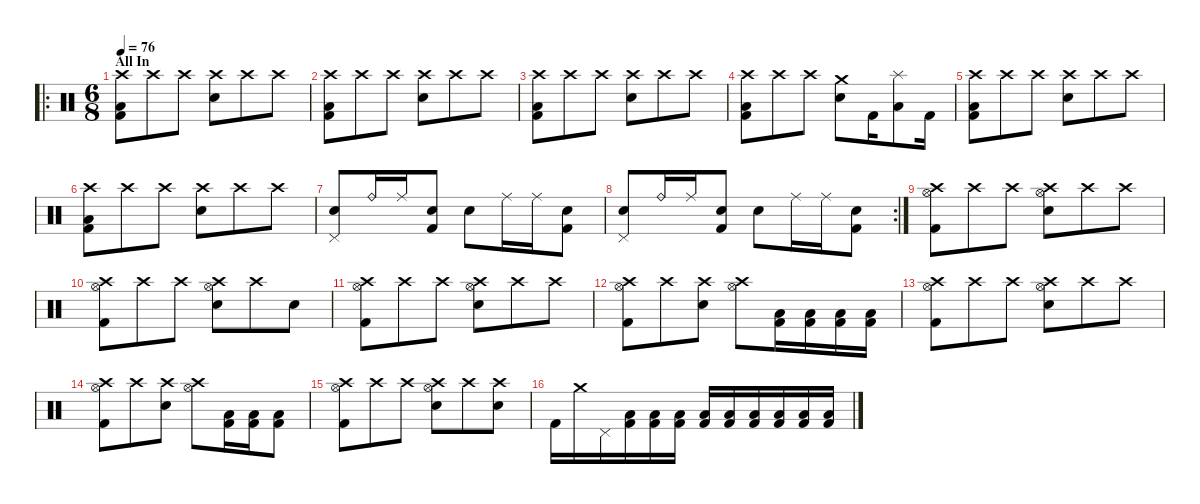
\defaultSystemsLayout 4
\hideDynamics
\bracketExtendMode nobrackets
\singleTrackTrackNamePolicy hidden
\multiTrackTrackNamePolicy hidden
\firstSystemTrackNameMode fullname
\firstSystemTrackNameOrientation horizontal
\otherSystemsTrackNameOrientation horizontal
\track ("Drums" "drm.") {instrument percussion}
\staff {score}
\articulation defaults
\ro
\ts (6 8)
\section ("" "All In")
\tempo 76
\clef neutral
\ks c
("Crash high (hit)" "Low Floor Tom (hit)" "Kick (hit) 2").8{dy f beam Down} "Crash high (hit)".8{beam Down} "Crash high (hit)".8{beam Down} ("Crash high (hit)" "Snare (hit) 2").8{beam Down} "Crash high (hit)".8{beam Down} "Crash high (hit)".8{beam Down} |
("Crash high (hit)" "Low Floor Tom (hit)" "Kick (hit) 2").8{beam Down} "Crash high (hit)".8{beam Down} "Crash high (hit)".8{beam Down} ("Crash high (hit)" "Snare (hit) 2").8{beam Down} "Crash high (hit)".8{beam Down} "Crash high (hit)".8{beam Down} |
("Crash high (hit)" "Low Floor Tom (hit)" "Kick (hit) 2").8{beam Down} "Crash high (hit)".8{beam Down} "Crash high (hit)".8{beam Down} ("Crash high (hit)" "Snare (hit) 2").8{beam Down} "Crash high (hit)".8{beam Down} "Crash high (hit)".8{beam Down} |
("Crash high (hit)" "Low Floor Tom (hit)" "Kick (hit) 2").8{beam Down} "Crash high (hit)".8{beam Down} "Crash high (hit)".8{beam Down} ("Crash medium (hit)" "Snare (hit) 2").8{beam Down} "Kick (hit) 2".16{beam Down} ("Splash (hit)" "Low Tom (hit)").8{beam Down} "Kick (hit) 2".16{beam Down} |
("Crash high (hit)" "Low Floor Tom (hit)" "Kick (hit) 2").8{beam Down} "Crash high (hit)".8{beam Down} "Crash high (hit)".8{beam Down} ("Crash high (hit)" "Snare (hit) 2").8{beam Down} "Crash high (hit)".8{beam Down} "Crash high (hit)".8{beam Down} |
("Crash high (hit)" "Low Floor Tom (hit)" "Kick (hit) 2").8{beam Down} "Crash high (hit)".8{beam Down} "Crash high (hit)".8{beam Down} ("Crash high (hit)" "Snare (hit) 2").8{beam Down} "Crash high (hit)".8{beam Down} "Crash high (hit)".8{beam Down} |
("Pedal Hi-Hat (hit)" "Snare (hit) 2").8{beam Up} "Ride (bell)".16{beam Up} "Ride (middle)".16{beam Up} ("Snare (hit) 2" "Kick (hit) 2").8{beam Up} "Snare (hit) 2".8{beam Down} "Ride (middle)".16{beam Down} "Ride (middle)".16{beam Down} ("Snare (hit) 2" "Kick (hit) 2").8{beam Down} |
\rc 2
("Pedal Hi-Hat (hit)" "Snare (hit) 2").8{beam Up} "Ride (bell)".16{beam Up} "Ride (middle)".16{beam Up} ("Snare (hit) 2" "Kick (hit) 2").8{beam Up} "Snare (hit) 2".8{beam Down} "Ride (middle)".16{beam Down} "Ride (middle)".16{beam Down} ("Snare (hit) 2" "Kick (hit) 2").8{beam Down} |
("Crash high (hit)" "Hi-Hat (open)" "Kick (hit) 2").8{beam Down} "Crash high (hit)".8{beam Down} "Crash high (hit)".8{beam Down} ("Crash high (hit)" "Hi-Hat (open)" "Snare (hit) 2").8{beam Down} "Crash high (hit)".8{beam Down} "Crash high (hit)".8{beam Down} |
("Crash high (hit)" "Hi-Hat (open)" "Kick (hit) 2").8{beam Down} "Crash high (hit)".8{beam Down} "Crash high (hit)".8{beam Down} ("Crash high (hit)" "Hi-Hat (open)" "Snare (hit) 2").8{beam Down} "Crash high (hit)".8{beam Down} "Snare (hit) 2".8{dy fff beam Down} |
("Crash high (hit)" "Hi-Hat (open)" "Kick (hit) 2").8{dy f beam Down} "Crash high (hit)".8{beam Down} "Crash high (hit)".8{beam Down} ("Crash high (hit)" "Hi-Hat (open)" "Snare (hit) 2").8{beam Down} "Crash high (hit)".8{beam Down} "Crash high (hit)".8{beam Down} |
("Crash high (hit)" "Hi-Hat (open)" "Kick (hit) 2").8{beam Down} "Crash high (hit)".8{beam Down} ("Crash high (hit)" "Snare (hit) 2").8{beam Down} ("Crash high (hit)" "Hi-Hat (open)").8{beam Down} ("Low Tom (hit)" "Kick (hit) 2").16{dy fff beam Down} ("Low Tom (hit)" "Kick (hit) 2").16{beam Down} ("Low Tom (hit)" "Kick (hit) 2").16{beam Down} ("Low Tom (hit)" "Kick (hit) 2").16{beam Down} |
("Crash high (hit)" "Hi-Hat (open)" "Kick (hit) 2").8{dy f beam Down} "Crash high (hit)".8{beam Down} "Crash high (hit)".8{beam Down} ("Crash high (hit)" "Hi-Hat (open)" "Snare (hit) 2").8{beam Down} "Crash high (hit)".8{beam Down} "Crash high (hit)".8{beam Down} |
("Crash high (hit)" "Hi-Hat (open)" "Kick (hit) 2").8{beam Down} "Crash high (hit)".8{beam Down} ("Crash high (hit)" "Snare (hit) 2").8{beam Down} ("Crash high (hit)" "Hi-Hat (open)").8{beam Down} ("Low Tom (hit)" "Kick (hit) 2").16{dy fff beam Down} ("Low Tom (hit)" "Kick (hit) 2").16{beam Down} ("Low Tom (hit)" "Kick (hit) 2").8{beam Down} |
("Crash high (hit)" "Hi-Hat (open)" "Kick (hit) 2").8{dy f beam Down} "Crash high (hit)".8{beam Down} "Crash high (hit)".8{beam Down} ("Crash high (hit)" "Hi-Hat (open)" "Snare (hit) 2").8{beam Down} "Crash high (hit)".8{beam Down} ("Crash high (hit)" "Snare (hit) 2").8{beam Down} |
"Kick (hit) 2".16{beam Down} "Crash medium (hit)".16{beam Down} "Pedal Hi-Hat (hit)".16{beam Down} ("Low Tom (hit)" "Kick (hit) 2").16{beam Down} ("Low Tom (hit)" "Kick (hit) 2").16{beam Down} ("Low Tom (hit)" "Kick (hit) 2").16{beam Down} ("Low Tom (hit)" "Kick (hit) 2").16{dy ff beam Up} ("Low Tom (hit)" "Kick (hit) 2").16{beam Up} ("Low Tom (hit)" "Kick (hit) 2").16{beam Up} ("Low Tom (hit)" "Kick (hit) 2").16{dy fff beam Up} ("Low Tom (hit)" "Kick (hit) 2").16{beam Up} ("Low Tom (hit)" "Kick (hit) 2").16{beam Up}
